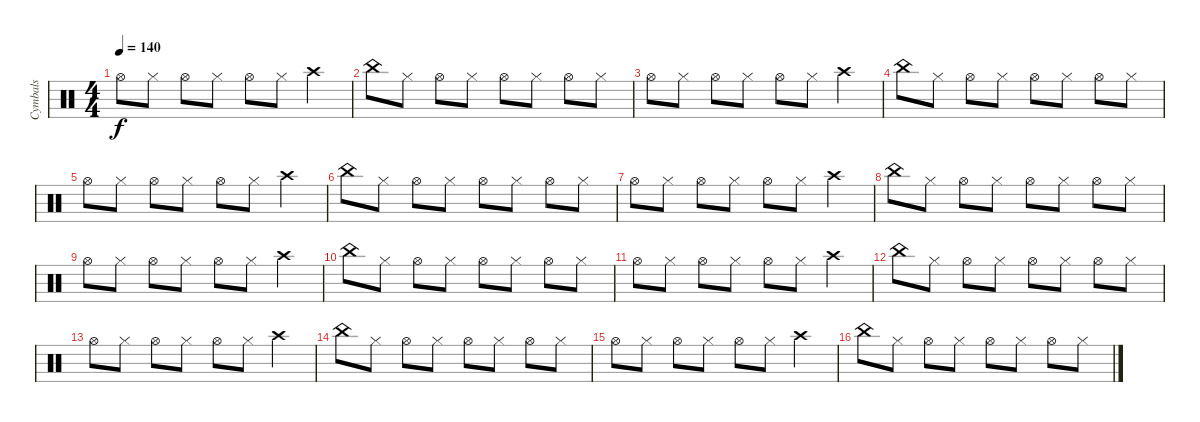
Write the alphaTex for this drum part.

\track ("Cymbals" "Cymbals") {instrument percussion}
\staff {score}
\articulation defaults
\ts (4 4)
\tempo 140
\clef neutral
\ks c "Hi-Hat (open)".8{dy f} "Hi-Hat (closed)".8 "Hi-Hat (open)".8 "Hi-Hat (closed)".8 "Hi-Hat (open)".8 "Hi-Hat (closed)".8 "Crash high (hit)".4
|
"China (hit)".8 "Hi-Hat (closed)".8 "Hi-Hat (open)".8 "Hi-Hat (closed)".8 "Hi-Hat (open)".8 "Hi-Hat (closed)".8 "Hi-Hat (open)".8 "Hi-Hat (closed)".8 |
"Hi-Hat (open)".8 "Hi-Hat (closed)".8 "Hi-Hat (open)".8 "Hi-Hat (closed)".8 "Hi-Hat (open)".8 "Hi-Hat (closed)".8 "Crash high (hit)".4 |
"China (hit)".8 "Hi-Hat (closed)".8 "Hi-Hat (open)".8 "Hi-Hat (closed)".8 "Hi-Hat (open)".8 "Hi-Hat (closed)".8 "Hi-Hat (open)".8 "Hi-Hat (closed)".8 |
"Hi-Hat (open)".8 "Hi-Hat (closed)".8 "Hi-Hat (open)".8 "Hi-Hat (closed)".8 "Hi-Hat (open)".8 "Hi-Hat (closed)".8 "Crash high (hit)".4 |
"China (hit)".8 "Hi-Hat (closed)".8 "Hi-Hat (open)".8 "Hi-Hat (closed)".8 "Hi-Hat (open)".8 "Hi-Hat (closed)".8 "Hi-Hat (open)".8 "Hi-Hat (closed)".8 |
"Hi-Hat (open)".8 "Hi-Hat (closed)".8 "Hi-Hat (open)".8 "Hi-Hat (closed)".8 "Hi-Hat (open)".8 "Hi-Hat (closed)".8 "Crash high (hit)".4 |
"China (hit)".8 "Hi-Hat (closed)".8 "Hi-Hat (open)".8 "Hi-Hat (closed)".8 "Hi-Hat (open)".8 "Hi-Hat (closed)".8 "Hi-Hat (open)".8 "Hi-Hat (closed)".8 |
"Hi-Hat (open)".8 "Hi-Hat (closed)".8 "Hi-Hat (open)".8 "Hi-Hat (closed)".8 "Hi-Hat (open)".8 "Hi-Hat (closed)".8 "Crash high (hit)".4 |
"China (hit)".8 "Hi-Hat (closed)".8 "Hi-Hat (open)".8 "Hi-Hat (closed)".8 "Hi-Hat (open)".8 "Hi-Hat (closed)".8 "Hi-Hat (open)".8 "Hi-Hat (closed)".8 |
"Hi-Hat (open)".8 "Hi-Hat (closed)".8 "Hi-Hat (open)".8 "Hi-Hat (closed)".8 "Hi-Hat (open)".8 "Hi-Hat (closed)".8 "Crash high (hit)".4 |
"China (hit)".8 "Hi-Hat (closed)".8 "Hi-Hat (open)".8 "Hi-Hat (closed)".8 "Hi-Hat (open)".8 "Hi-Hat (closed)".8 "Hi-Hat (open)".8 "Hi-Hat (closed)".8 |
"Hi-Hat (open)".8 "Hi-Hat (closed)".8 "Hi-Hat (open)".8 "Hi-Hat (closed)".8 "Hi-Hat (open)".8 "Hi-Hat (closed)".8 "Crash high (hit)".4 |
"China (hit)".8 "Hi-Hat (closed)".8 "Hi-Hat (open)".8 "Hi-Hat (closed)".8 "Hi-Hat (open)".8 "Hi-Hat (closed)".8 "Hi-Hat (open)".8 "Hi-Hat (closed)".8 |
"Hi-Hat (open)".8 "Hi-Hat (closed)".8 "Hi-Hat (open)".8 "Hi-Hat (closed)".8 "Hi-Hat (open)".8 "Hi-Hat (closed)".8 "Crash high (hit)".4 |
"China (hit)".8 "Hi-Hat (closed)".8 "Hi-Hat (open)".8 "Hi-Hat (closed)".8 "Hi-Hat (open)".8 "Hi-Hat (closed)".8 "Hi-Hat (open)".8 "Hi-Hat (closed)".8
